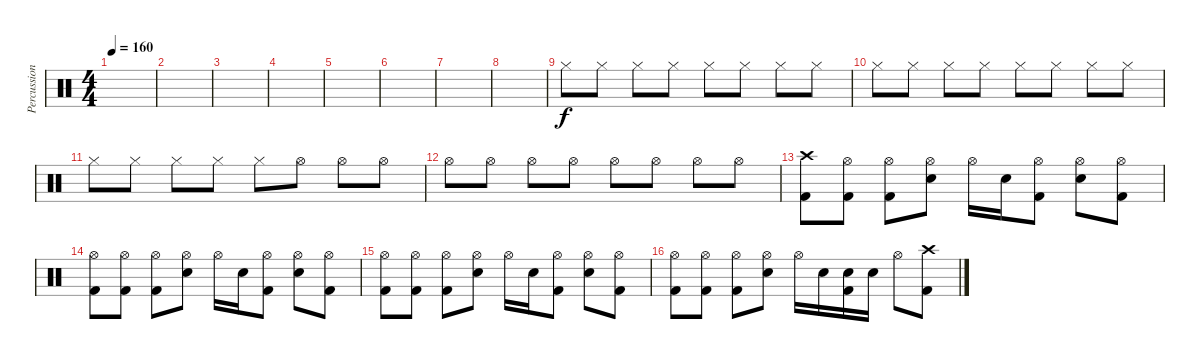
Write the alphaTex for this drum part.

\track ("Percussion" "Percussion") {instrument percussion}
\staff {score}
\articulation defaults
\ts (4 4)
\tempo 160
\clef neutral
\ks c
|
|
|
|
|
|
|
|
"Hi-Hat (closed)".8 "Hi-Hat (closed)".8 "Hi-Hat (closed)".8 "Hi-Hat (closed)".8 "Hi-Hat (closed)".8 "Hi-Hat (closed)".8 "Hi-Hat (closed)".8 "Hi-Hat (closed)".8 |
"Hi-Hat (closed)".8 "Hi-Hat (closed)".8 "Hi-Hat (closed)".8 "Hi-Hat (closed)".8 "Hi-Hat (closed)".8 "Hi-Hat (closed)".8 "Hi-Hat (closed)".8 "Hi-Hat (closed)".8 |
"Hi-Hat (closed)".8 "Hi-Hat (closed)".8 "Hi-Hat (closed)".8 "Hi-Hat (closed)".8 "Hi-Hat (closed)".8 "Hi-Hat (open)".8 "Hi-Hat (open)".8 "Hi-Hat (open)".8 |
"Hi-Hat (open)".8 "Hi-Hat (open)".8 "Hi-Hat (open)".8 "Hi-Hat (open)".8 "Hi-Hat (open)".8 "Hi-Hat (open)".8 "Hi-Hat (open)".8 "Hi-Hat (open)".8 |
("Crash high (hit)" "Kick (hit) 2").8 ("Hi-Hat (open)" "Kick (hit) 2").8 ("Hi-Hat (open)" "Kick (hit) 2").8 ("Hi-Hat (open)" "Electric Snare (hit)").8 "Hi-Hat (open)".16 "Electric Snare (hit)".16 ("Hi-Hat (open)" "Kick (hit) 2").8 ("Hi-Hat (open)" "Electric Snare (hit)").8 ("Hi-Hat (open)" "Kick (hit) 2").8 |
("Hi-Hat (open)" "Kick (hit) 2").8 ("Hi-Hat (open)" "Kick (hit) 2").8 ("Hi-Hat (open)" "Kick (hit) 2").8 ("Hi-Hat (open)" "Electric Snare (hit)").8 "Hi-Hat (open)".16 "Electric Snare (hit)".16 ("Hi-Hat (open)" "Kick (hit) 2").8 ("Hi-Hat (open)" "Electric Snare (hit)").8 ("Hi-Hat (open)" "Kick (hit) 2").8 |
("Hi-Hat (open)" "Kick (hit) 2").8 ("Hi-Hat (open)" "Kick (hit) 2").8 ("Hi-Hat (open)" "Kick (hit) 2").8 ("Hi-Hat (open)" "Electric Snare (hit)").8 "Hi-Hat (open)".16 "Electric Snare (hit)".16 ("Hi-Hat (open)" "Kick (hit) 2").8 ("Hi-Hat (open)" "Electric Snare (hit)").8 ("Hi-Hat (open)" "Kick (hit) 2").8 |
("Hi-Hat (open)" "Kick (hit) 2").8 ("Hi-Hat (open)" "Kick (hit) 2").8 ("Hi-Hat (open)" "Kick (hit) 2").8 ("Hi-Hat (open)" "Electric Snare (hit)").8 "Hi-Hat (open)".16 "Electric Snare (hit)".16 ("Electric Snare (hit)" "Kick (hit) 2").16 "Electric Snare (hit)".16 "Hi-Hat (open)".8 ("Crash high (hit)" "Kick (hit) 2").8
